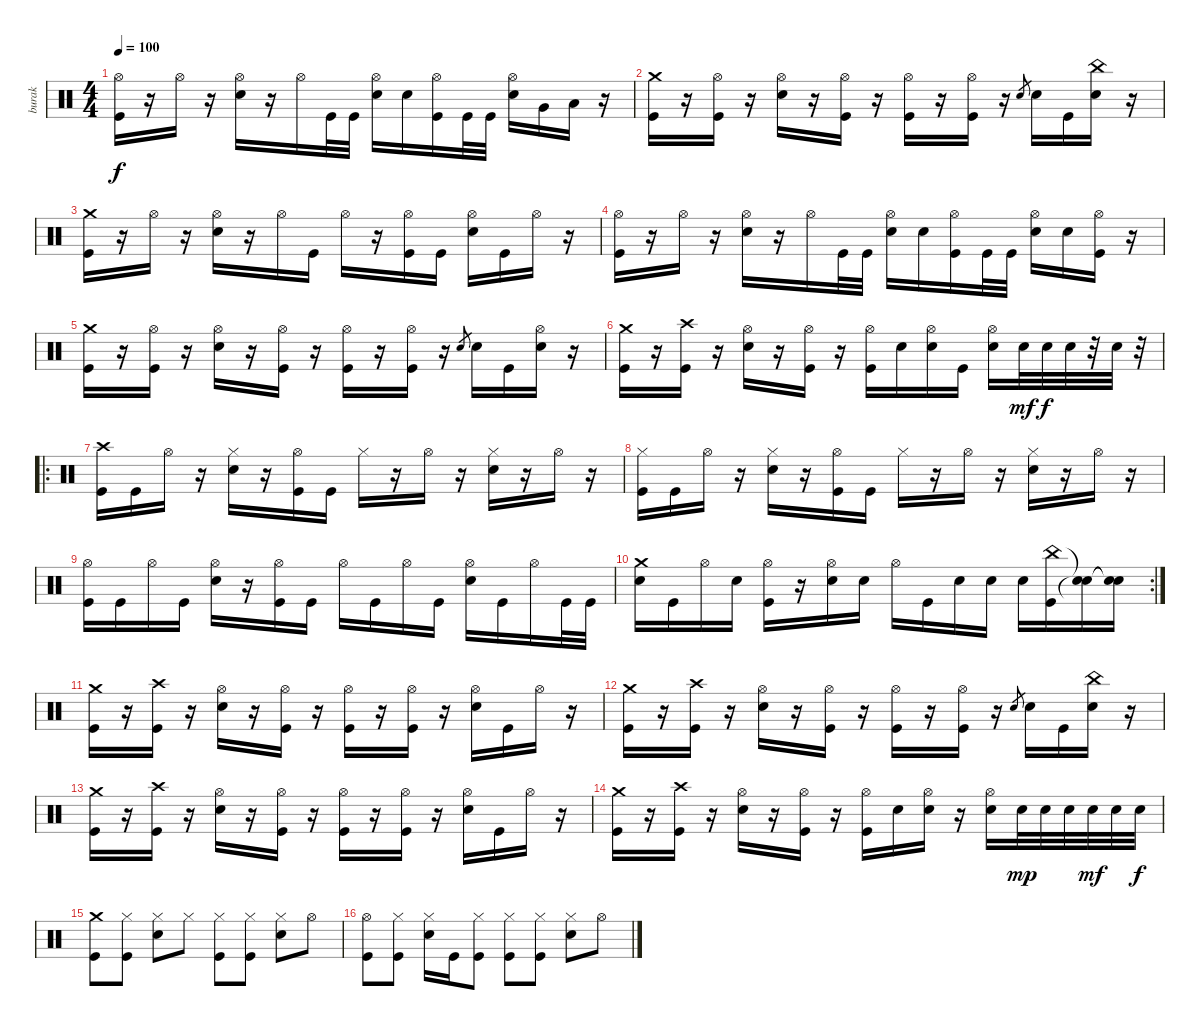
\track ("burak" "burak") {instrument percussion}
\staff {score}
\articulation defaults
\ts (4 4)
\tempo 100
\clef neutral
\ks c
("Hi-Hat (open)" "Kick (hit)").16{dy f} r.16 "Hi-Hat (open)".16 r.16 ("Hi-Hat (open)" "Electric Snare (hit)").16 r.16 "Hi-Hat (open)".16 "Kick (hit)".32 "Kick (hit)".32 ("Hi-Hat (open)" "Electric Snare (hit)").16 "Electric Snare (hit)".16 ("Hi-Hat (open)" "Kick (hit)").16 "Kick (hit)".32 "Kick (hit)".32 ("Hi-Hat (open)" "Electric Snare (hit)").16 "Very Low Tom (hit)".16 "Low Floor Tom (hit)".16 r.16 |
("Crash medium (hit)" "Kick (hit)").16 r.16 ("Hi-Hat (open)" "Kick (hit)").16 r.16 ("Hi-Hat (open)" "Electric Snare (hit)").16 r.16 ("Hi-Hat (open)" "Kick (hit)").16 r.16 ("Hi-Hat (open)" "Kick (hit)").16 r.16 ("Hi-Hat (open)" "Kick (hit)").16 r.16 "Electric Snare (hit)".8{gr} "Electric Snare (hit)".16 "Kick (hit)".16 ("China (hit)" "Electric Snare (hit)").16 r.16 |
("Crash medium (hit)" "Kick (hit)").16 r.16 "Hi-Hat (open)".16 r.16 ("Hi-Hat (open)" "Electric Snare (hit)").16 r.16 "Hi-Hat (open)".16 "Kick (hit)".16 "Hi-Hat (open)".16 r.16 ("Hi-Hat (open)" "Kick (hit)").16 "Kick (hit)".16 ("Hi-Hat (open)" "Electric Snare (hit)").16 "Kick (hit)".16 "Hi-Hat (open)".16 r.16 |
("Hi-Hat (open)" "Kick (hit)").16 r.16 "Hi-Hat (open)".16 r.16 ("Hi-Hat (open)" "Electric Snare (hit)").16 r.16 "Hi-Hat (open)".16 "Kick (hit)".32 "Kick (hit)".32 ("Hi-Hat (open)" "Electric Snare (hit)").16 "Electric Snare (hit)".16 ("Hi-Hat (open)" "Kick (hit)").16 "Kick (hit)".32 "Kick (hit)".32 ("Hi-Hat (open)" "Electric Snare (hit)").16 "Electric Snare (hit)".16 ("Hi-Hat (open)" "Kick (hit)").16 r.16 |
("Crash medium (hit)" "Kick (hit)").16 r.16 ("Hi-Hat (open)" "Kick (hit)").16 r.16 ("Hi-Hat (open)" "Electric Snare (hit)").16 r.16 ("Hi-Hat (open)" "Kick (hit)").16 r.16 ("Hi-Hat (open)" "Kick (hit)").16 r.16 ("Hi-Hat (open)" "Kick (hit)").16 r.16 "Electric Snare (hit)".8{gr} "Electric Snare (hit)".16 "Kick (hit)".16 ("Hi-Hat (open)" "Electric Snare (hit)").16 r.16 |
("Crash medium (hit)" "Kick (hit)").16 r.16 ("Crash high (hit)" "Kick (hit)").16 r.16 ("Hi-Hat (open)" "Electric Snare (hit)").16 r.16 ("Hi-Hat (open)" "Kick (hit)").16 r.16 ("Hi-Hat (open)" "Kick (hit)").16 "Electric Snare (hit)".16 ("Hi-Hat (open)" "Electric Snare (hit)").16 "Kick (hit)".16 ("Hi-Hat (open)" "Electric Snare (hit)").16 "Electric Snare (hit)".32{dy mf} "Electric Snare (hit)".32{dy f} "Electric Snare (hit)".32 r.32 "Electric Snare (hit)".32 r.32 |
\ro
("Crash high (hit)" "Kick (hit)").16 "Kick (hit)".16 "Hi-Hat (open)".16 r.16 ("Hi-Hat (closed)" "Electric Snare (hit)").16 r.16 ("Hi-Hat (open)" "Kick (hit)").16 "Kick (hit)".16 "Hi-Hat (closed)".16 r.16 "Hi-Hat (open)".16 r.16 ("Hi-Hat (closed)" "Electric Snare (hit)").16 r.16 "Hi-Hat (open)".16 r.16 |
("Hi-Hat (closed)" "Kick (hit)").16 "Kick (hit)".16 "Hi-Hat (open)".16 r.16 ("Hi-Hat (closed)" "Electric Snare (hit)").16 r.16 ("Hi-Hat (open)" "Kick (hit)").16 "Kick (hit)".16 "Hi-Hat (closed)".16 r.16 "Hi-Hat (open)".16 r.16 ("Hi-Hat (closed)" "Electric Snare (hit)").16 r.16 "Hi-Hat (open)".16 r.16 |
("Hi-Hat (open)" "Kick (hit)").16 "Kick (hit)".16 "Hi-Hat (open)".16 "Kick (hit)".16 ("Hi-Hat (open)" "Electric Snare (hit)").16 r.16 ("Hi-Hat (open)" "Kick (hit)").16 "Kick (hit)".16 "Hi-Hat (open)".16 "Kick (hit)".16 "Hi-Hat (open)".16 "Kick (hit)".16 ("Hi-Hat (open)" "Electric Snare (hit)").16 "Kick (hit)".16 "Hi-Hat (open)".16 "Kick (hit)".32 "Kick (hit)".32 |
\rc 2
("Crash medium (hit)" "Electric Snare (hit)").16 "Kick (hit)".16 "Hi-Hat (open)".16 "Electric Snare (hit)".16 ("Hi-Hat (open)" "Kick (hit)").16 r.16 ("Hi-Hat (open)" "Electric Snare (hit)").16 "Electric Snare (hit)".16 "Hi-Hat (open)".16 "Kick (hit)".16 "Electric Snare (hit)".16 "Electric Snare (hit)".16 "Electric Snare (hit)".16 ("China (hit)" "Kick (hit)").16 ("Snare (hit)"{t} "Snare (hit)"{t}).16 ("Snare (hit)"{t} "Snare (hit)"{t}).16 |
("Crash medium (hit)" "Kick (hit)").16 r.16 ("Crash high (hit)" "Kick (hit)").16 r.16 ("Hi-Hat (open)" "Electric Snare (hit)").16 r.16 ("Hi-Hat (open)" "Kick (hit)").16 r.16 ("Hi-Hat (open)" "Kick (hit)").16 r.16 ("Hi-Hat (open)" "Kick (hit)").16 r.16 ("Hi-Hat (open)" "Electric Snare (hit)").16 "Kick (hit)".16 "Hi-Hat (open)".16 r.16 |
("Crash medium (hit)" "Kick (hit)").16 r.16 ("Crash high (hit)" "Kick (hit)").16 r.16 ("Hi-Hat (open)" "Electric Snare (hit)").16 r.16 ("Hi-Hat (open)" "Kick (hit)").16 r.16 ("Hi-Hat (open)" "Kick (hit)").16 r.16 ("Hi-Hat (open)" "Kick (hit)").16 r.16 "Electric Snare (hit)".8{gr} "Electric Snare (hit)".16 "Kick (hit)".16 ("China (hit)" "Electric Snare (hit)").16 r.16 |
("Crash medium (hit)" "Kick (hit)").16 r.16 ("Crash high (hit)" "Kick (hit)").16 r.16 ("Hi-Hat (open)" "Electric Snare (hit)").16 r.16 ("Hi-Hat (open)" "Kick (hit)").16 r.16 ("Hi-Hat (open)" "Kick (hit)").16 r.16 ("Hi-Hat (open)" "Kick (hit)").16 r.16 ("Hi-Hat (open)" "Electric Snare (hit)").16 "Kick (hit)".16 "Hi-Hat (open)".16 r.16 |
("Crash medium (hit)" "Kick (hit)").16 r.16 ("Crash high (hit)" "Kick (hit)").16 r.16 ("Hi-Hat (open)" "Electric Snare (hit)").16 r.16 ("Hi-Hat (open)" "Kick (hit)").16 r.16 ("Hi-Hat (open)" "Kick (hit)").16 "Electric Snare (hit)".16 ("Hi-Hat (open)" "Electric Snare (hit)").16 r.16 ("Hi-Hat (open)" "Electric Snare (hit)").16 "Electric Snare (hit)".32{dy mp} "Electric Snare (hit)".32 "Electric Snare (hit)".32 "Electric Snare (hit)".32{dy mf} "Electric Snare (hit)".32 "Electric Snare (hit)".32{dy f} |
("Crash medium (hit)" "Kick (hit)").8 ("Hi-Hat (closed)" "Kick (hit)").8 ("Hi-Hat (closed)" "Electric Snare (hit)").8 "Hi-Hat (closed)".8 ("Hi-Hat (closed)" "Kick (hit)").8 ("Hi-Hat (closed)" "Kick (hit)").8 ("Hi-Hat (closed)" "Electric Snare (hit)").8 "Hi-Hat (open)".8 |
("Hi-Hat (open)" "Kick (hit)").8 ("Hi-Hat (closed)" "Kick (hit)").8 ("Hi-Hat (closed)" "Electric Snare (hit)").16 "Kick (hit)".16 ("Hi-Hat (closed)" "Kick (hit)").8 ("Hi-Hat (closed)" "Kick (hit)").8 ("Hi-Hat (closed)" "Kick (hit)").8 ("Hi-Hat (closed)" "Electric Snare (hit)").8 "Hi-Hat (open)".8
